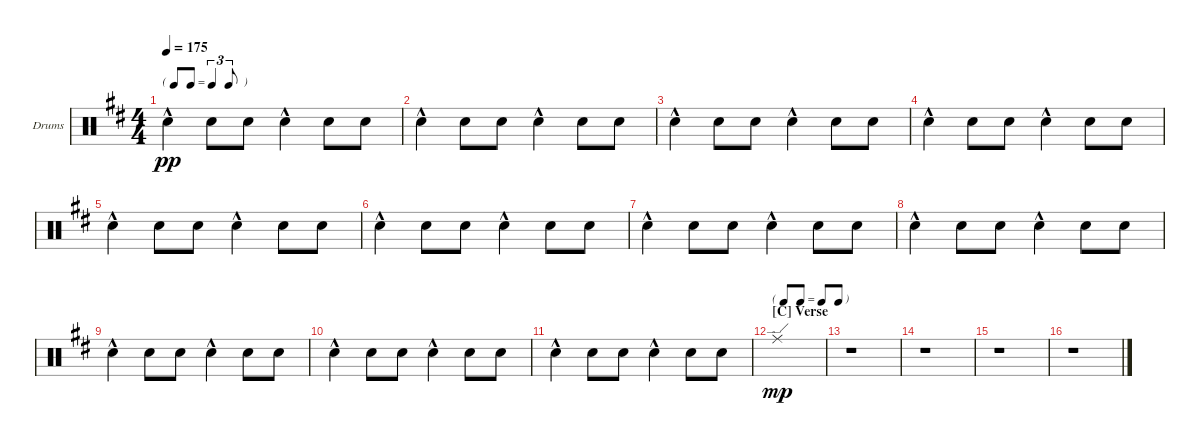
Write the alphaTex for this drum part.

\defaultSystemsLayout 4
\bracketExtendMode groupsimilarinstruments
\firstSystemTrackNameOrientation horizontal
\otherSystemsTrackNameOrientation horizontal
\track ("Drumkit" "Drums") {instrument percussion}
\staff {score}
\articulation defaults
\ts (4 4)
\tf triplet8th
\tempo 175
\clef neutral
\ks d "Snare (hit) 2"{hac}.4{dy pp} "Snare (hit) 2".8 "Snare (hit) 2".8 "Snare (hit) 2"{hac}.4 "Snare (hit) 2".8 "Snare (hit) 2".8
|
"Snare (hit) 2"{hac}.4 "Snare (hit) 2".8 "Snare (hit) 2".8 "Snare (hit) 2"{hac}.4 "Snare (hit) 2".8 "Snare (hit) 2".8 |
"Snare (hit) 2"{hac}.4 "Snare (hit) 2".8 "Snare (hit) 2".8 "Snare (hit) 2"{hac}.4 "Snare (hit) 2".8 "Snare (hit) 2".8 |
"Snare (hit) 2"{hac}.4 "Snare (hit) 2".8 "Snare (hit) 2".8 "Snare (hit) 2"{hac}.4 "Snare (hit) 2".8 "Snare (hit) 2".8 |
"Snare (hit) 2"{hac}.4 "Snare (hit) 2".8 "Snare (hit) 2".8 "Snare (hit) 2"{hac}.4 "Snare (hit) 2".8 "Snare (hit) 2".8 |
"Snare (hit) 2"{hac}.4 "Snare (hit) 2".8 "Snare (hit) 2".8 "Snare (hit) 2"{hac}.4 "Snare (hit) 2".8 "Snare (hit) 2".8 |
"Snare (hit) 2"{hac}.4 "Snare (hit) 2".8 "Snare (hit) 2".8 "Snare (hit) 2"{hac}.4 "Snare (hit) 2".8 "Snare (hit) 2".8 |
"Snare (hit) 2"{hac}.4 "Snare (hit) 2".8 "Snare (hit) 2".8 "Snare (hit) 2"{hac}.4 "Snare (hit) 2".8 "Snare (hit) 2".8 |
"Snare (hit) 2"{hac}.4 "Snare (hit) 2".8 "Snare (hit) 2".8 "Snare (hit) 2"{hac}.4 "Snare (hit) 2".8 "Snare (hit) 2".8 |
"Snare (hit) 2"{hac}.4 "Snare (hit) 2".8 "Snare (hit) 2".8 "Snare (hit) 2"{hac}.4 "Snare (hit) 2".8 "Snare (hit) 2".8 |
"Snare (hit) 2"{hac}.4 "Snare (hit) 2".8 "Snare (hit) 2".8 "Snare (hit) 2"{hac}.4 "Snare (hit) 2".8 "Snare (hit) 2".8 |
\tf none
\section ("C" "Verse")
"Ride (edge)".1{dy mp} |
r.1 |
r.1 |
r.1 |
r.1
